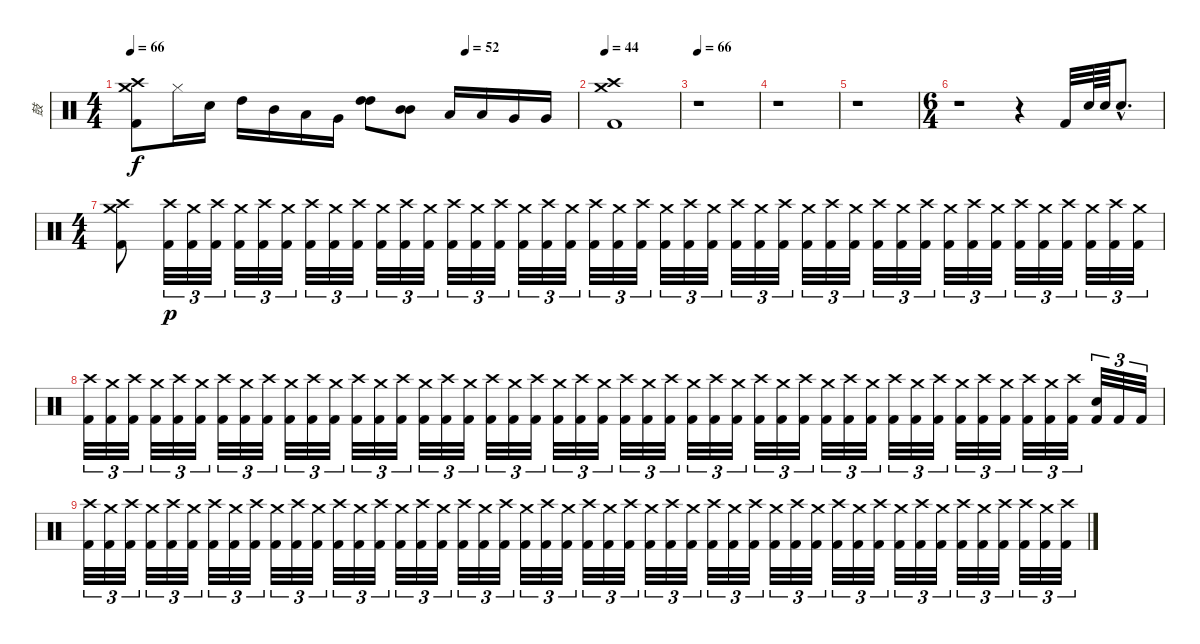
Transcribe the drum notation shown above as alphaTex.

\track ("鼓" "鼓") {instrument percussion}
\staff {score}
\articulation defaults
\ts (4 4)
\tempo 66
\tempo (52 0.75)
\clef neutral
\ks c
("Crash medium (hit)" "Crash high (hit)" "Kick (hit) 2").8{dy f} "Hi-Hat (closed)".16 "Snare (hit) 2".16 "High Tom (hit)".16 "Mid Tom (hit)".16 "Low Tom (hit)".16 "Very Low Tom (hit)".16 ("High Tom (hit)" "High Tom (hit)").8{bd 120} ("Mid Tom (hit)" "Mid Tom (hit)").8{bd 120} "Low Tom (hit)".16 "Low Tom (hit)".16 "Very Low Tom (hit)".16 "Very Low Tom (hit)".16 |
\tempo 44
("Crash medium (hit)" "Crash high (hit)" "Kick (hit) 2").1 |
\tempo 66
r.1 |
r.1 |
r.1 |
\ts (6 4)
r.1 r.4 "Kick (hit) 2".32 "Electric Snare (hit)".64 "Electric Snare (hit)".64 "Electric Snare (hit)"{hac}.8{d} |
\ts (4 4)
("Crash medium (hit)" "Crash high (hit)" "Kick (hit) 2").8 ("Crash high (hit)" "Kick (hit) 2").32{tu (3 2) dy p} ("Crash medium (hit)" "Kick (hit) 2").32{tu (3 2)} ("Crash high (hit)" "Kick (hit) 2").32{tu (3 2)} ("Crash medium (hit)" "Kick (hit) 2").32{tu (3 2)} ("Crash high (hit)" "Kick (hit) 2").32{tu (3 2)} ("Crash medium (hit)" "Kick (hit) 2").32{tu (3 2)} ("Crash high (hit)" "Kick (hit) 2").32{tu (3 2)} ("Crash medium (hit)" "Kick (hit) 2").32{tu (3 2)} ("Crash high (hit)" "Kick (hit) 2").32{tu (3 2)} ("Crash medium (hit)" "Kick (hit) 2").32{tu (3 2)} ("Crash high (hit)" "Kick (hit) 2").32{tu (3 2)} ("Crash medium (hit)" "Kick (hit) 2").32{tu (3 2)} ("Crash high (hit)" "Kick (hit) 2").32{tu (3 2)} ("Crash medium (hit)" "Kick (hit) 2").32{tu (3 2)} ("Crash high (hit)" "Kick (hit) 2").32{tu (3 2)} ("Crash medium (hit)" "Kick (hit) 2").32{tu (3 2)} ("Crash high (hit)" "Kick (hit) 2").32{tu (3 2)} ("Crash medium (hit)" "Kick (hit) 2").32{tu (3 2)} ("Crash high (hit)" "Kick (hit) 2").32{tu (3 2)} ("Crash medium (hit)" "Kick (hit) 2").32{tu (3 2)} ("Crash high (hit)" "Kick (hit) 2").32{tu (3 2)} ("Crash medium (hit)" "Kick (hit) 2").32{tu (3 2)} ("Crash high (hit)" "Kick (hit) 2").32{tu (3 2)} ("Crash medium (hit)" "Kick (hit) 2").32{tu (3 2)} ("Crash high (hit)" "Kick (hit) 2").32{tu (3 2)} ("Crash medium (hit)" "Kick (hit) 2").32{tu (3 2)} ("Crash high (hit)" "Kick (hit) 2").32{tu (3 2)} ("Crash medium (hit)" "Kick (hit) 2").32{tu (3 2)} ("Crash high (hit)" "Kick (hit) 2").32{tu (3 2)} ("Crash medium (hit)" "Kick (hit) 2").32{tu (3 2)} ("Crash high (hit)" "Kick (hit) 2").32{tu (3 2)} ("Crash medium (hit)" "Kick (hit) 2").32{tu (3 2)} ("Crash high (hit)" "Kick (hit) 2").32{tu (3 2)} ("Crash medium (hit)" "Kick (hit) 2").32{tu (3 2)} ("Crash high (hit)" "Kick (hit) 2").32{tu (3 2)} ("Crash medium (hit)" "Kick (hit) 2").32{tu (3 2)} ("Crash high (hit)" "Kick (hit) 2").32{tu (3 2)} ("Crash medium (hit)" "Kick (hit) 2").32{tu (3 2)} ("Crash high (hit)" "Kick (hit) 2").32{tu (3 2)} ("Crash medium (hit)" "Kick (hit) 2").32{tu (3 2)} ("Crash high (hit)" "Kick (hit) 2").32{tu (3 2)} ("Crash medium (hit)" "Kick (hit) 2").32{tu (3 2)} |
("Crash high (hit)" "Kick (hit) 2").32{tu (3 2)} ("Crash medium (hit)" "Kick (hit) 2").32{tu (3 2)} ("Crash high (hit)" "Kick (hit) 2").32{tu (3 2)} ("Crash medium (hit)" "Kick (hit) 2").32{tu (3 2)} ("Crash high (hit)" "Kick (hit) 2").32{tu (3 2)} ("Crash medium (hit)" "Kick (hit) 2").32{tu (3 2)} ("Crash high (hit)" "Kick (hit) 2").32{tu (3 2)} ("Crash medium (hit)" "Kick (hit) 2").32{tu (3 2)} ("Crash high (hit)" "Kick (hit) 2").32{tu (3 2)} ("Crash medium (hit)" "Kick (hit) 2").32{tu (3 2)} ("Crash high (hit)" "Kick (hit) 2").32{tu (3 2)} ("Crash medium (hit)" "Kick (hit) 2").32{tu (3 2)} ("Crash high (hit)" "Kick (hit) 2").32{tu (3 2)} ("Crash medium (hit)" "Kick (hit) 2").32{tu (3 2)} ("Crash high (hit)" "Kick (hit) 2").32{tu (3 2)} ("Crash medium (hit)" "Kick (hit) 2").32{tu (3 2)} ("Crash high (hit)" "Kick (hit) 2").32{tu (3 2)} ("Crash medium (hit)" "Kick (hit) 2").32{tu (3 2)} ("Crash high (hit)" "Kick (hit) 2").32{tu (3 2)} ("Crash medium (hit)" "Kick (hit) 2").32{tu (3 2)} ("Crash high (hit)" "Kick (hit) 2").32{tu (3 2)} ("Crash medium (hit)" "Kick (hit) 2").32{tu (3 2)} ("Crash high (hit)" "Kick (hit) 2").32{tu (3 2)} ("Crash medium (hit)" "Kick (hit) 2").32{tu (3 2)} ("Crash high (hit)" "Kick (hit) 2").32{tu (3 2)} ("Crash medium (hit)" "Kick (hit) 2").32{tu (3 2)} ("Crash high (hit)" "Kick (hit) 2").32{tu (3 2)} ("Crash medium (hit)" "Kick (hit) 2").32{tu (3 2)} ("Crash high (hit)" "Kick (hit) 2").32{tu (3 2)} ("Crash medium (hit)" "Kick (hit) 2").32{tu (3 2)} ("Crash high (hit)" "Kick (hit) 2").32{tu (3 2)} ("Crash medium (hit)" "Kick (hit) 2").32{tu (3 2)} ("Crash high (hit)" "Kick (hit) 2").32{tu (3 2)} ("Crash medium (hit)" "Kick (hit) 2").32{tu (3 2)} ("Crash high (hit)" "Kick (hit) 2").32{tu (3 2)} ("Crash medium (hit)" "Kick (hit) 2").32{tu (3 2)} ("Crash high (hit)" "Kick (hit) 2").32{tu (3 2)} ("Crash medium (hit)" "Kick (hit) 2").32{tu (3 2)} ("Crash high (hit)" "Kick (hit) 2").32{tu (3 2)} ("Crash medium (hit)" "Kick (hit) 2").32{tu (3 2)} ("Crash high (hit)" "Kick (hit) 2").32{tu (3 2)} ("Crash medium (hit)" "Kick (hit) 2").32{tu (3 2)} ("Crash high (hit)" "Kick (hit) 2").32{tu (3 2)} ("Crash medium (hit)" "Kick (hit) 2").32{tu (3 2)} ("Crash high (hit)" "Kick (hit) 2").32{tu (3 2)} ("Electric Snare (hit)" "Kick (hit) 2").32{tu (3 2)} "Kick (hit) 2".32{tu (3 2)} "Kick (hit) 2".32{tu (3 2)} |
("Crash high (hit)" "Kick (hit) 2").32{tu (3 2) volume 0} ("Crash medium (hit)" "Kick (hit) 2").32{tu (3 2)} ("Crash high (hit)" "Kick (hit) 2").32{tu (3 2)} ("Crash medium (hit)" "Kick (hit) 2").32{tu (3 2)} ("Crash high (hit)" "Kick (hit) 2").32{tu (3 2)} ("Crash medium (hit)" "Kick (hit) 2").32{tu (3 2)} ("Crash high (hit)" "Kick (hit) 2").32{tu (3 2)} ("Crash medium (hit)" "Kick (hit) 2").32{tu (3 2)} ("Crash high (hit)" "Kick (hit) 2").32{tu (3 2)} ("Crash medium (hit)" "Kick (hit) 2").32{tu (3 2)} ("Crash high (hit)" "Kick (hit) 2").32{tu (3 2)} ("Crash medium (hit)" "Kick (hit) 2").32{tu (3 2)} ("Crash high (hit)" "Kick (hit) 2").32{tu (3 2)} ("Crash medium (hit)" "Kick (hit) 2").32{tu (3 2)} ("Crash high (hit)" "Kick (hit) 2").32{tu (3 2)} ("Crash medium (hit)" "Kick (hit) 2").32{tu (3 2)} ("Crash high (hit)" "Kick (hit) 2").32{tu (3 2)} ("Crash medium (hit)" "Kick (hit) 2").32{tu (3 2)} ("Crash high (hit)" "Kick (hit) 2").32{tu (3 2)} ("Crash medium (hit)" "Kick (hit) 2").32{tu (3 2)} ("Crash high (hit)" "Kick (hit) 2").32{tu (3 2)} ("Crash medium (hit)" "Kick (hit) 2").32{tu (3 2)} ("Crash high (hit)" "Kick (hit) 2").32{tu (3 2)} ("Crash medium (hit)" "Kick (hit) 2").32{tu (3 2)} ("Crash high (hit)" "Kick (hit) 2").32{tu (3 2)} ("Crash medium (hit)" "Kick (hit) 2").32{tu (3 2)} ("Crash high (hit)" "Kick (hit) 2").32{tu (3 2)} ("Crash medium (hit)" "Kick (hit) 2").32{tu (3 2)} ("Crash high (hit)" "Kick (hit) 2").32{tu (3 2)} ("Crash medium (hit)" "Kick (hit) 2").32{tu (3 2)} ("Crash high (hit)" "Kick (hit) 2").32{tu (3 2)} ("Crash medium (hit)" "Kick (hit) 2").32{tu (3 2)} ("Crash high (hit)" "Kick (hit) 2").32{tu (3 2)} ("Crash medium (hit)" "Kick (hit) 2").32{tu (3 2)} ("Crash high (hit)" "Kick (hit) 2").32{tu (3 2)} ("Crash medium (hit)" "Kick (hit) 2").32{tu (3 2)} ("Crash high (hit)" "Kick (hit) 2").32{tu (3 2)} ("Crash medium (hit)" "Kick (hit) 2").32{tu (3 2)} ("Crash high (hit)" "Kick (hit) 2").32{tu (3 2)} ("Crash medium (hit)" "Kick (hit) 2").32{tu (3 2)} ("Crash high (hit)" "Kick (hit) 2").32{tu (3 2)} ("Crash medium (hit)" "Kick (hit) 2").32{tu (3 2)} ("Crash high (hit)" "Kick (hit) 2").32{tu (3 2)} ("Crash medium (hit)" "Kick (hit) 2").32{tu (3 2)} ("Crash high (hit)" "Kick (hit) 2").32{tu (3 2)} ("Crash high (hit)" "Kick (hit) 2").32{tu (3 2)} ("Crash medium (hit)" "Kick (hit) 2").32{tu (3 2)} ("Crash high (hit)" "Kick (hit) 2").32{tu (3 2)}
